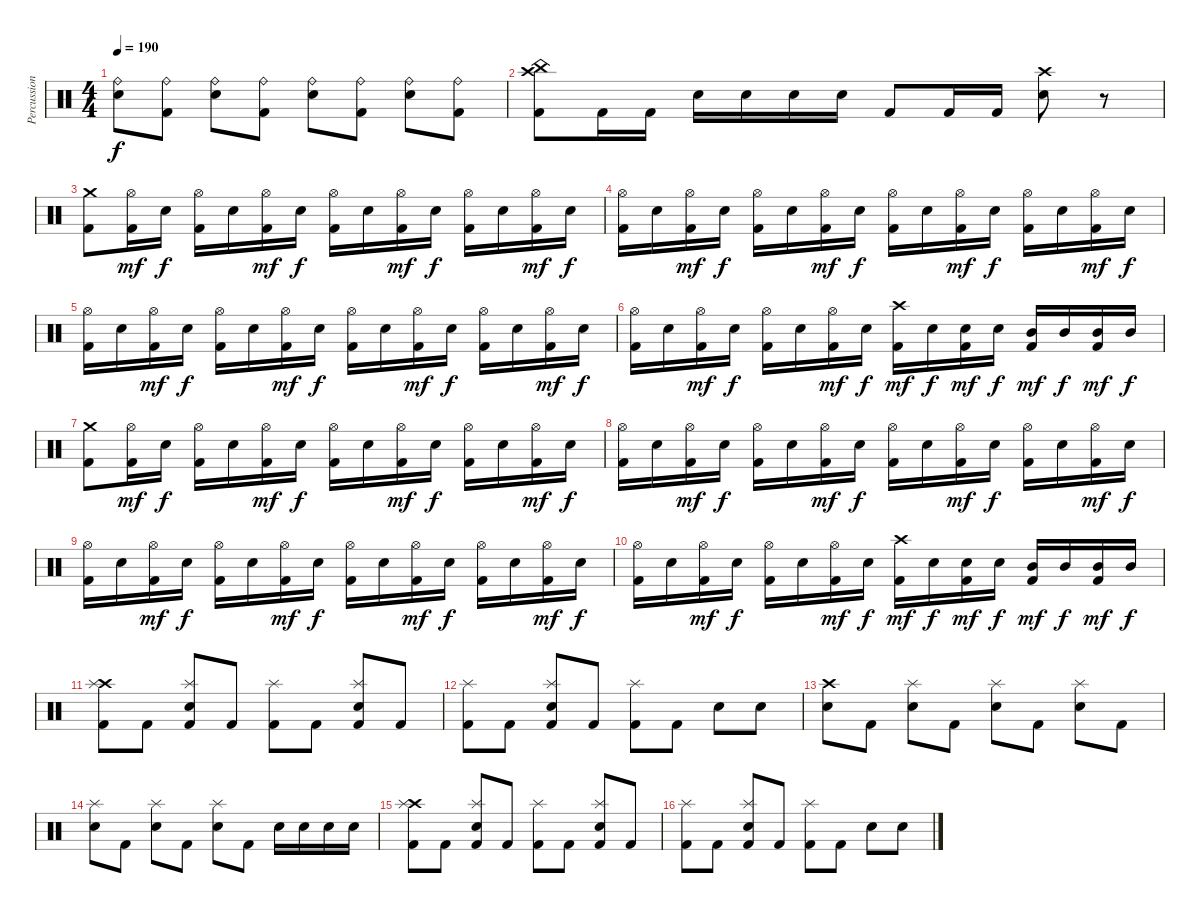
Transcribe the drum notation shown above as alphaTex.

\track ("Percussion" "Percussion") {instrument percussion}
\staff {score}
\articulation defaults
\ts (4 4)
\tempo 190
\clef neutral
\ks c
("Ride (bell)" "Electric Snare (hit)").8{dy f} ("Ride (bell)" "Kick (hit) 2").8 ("Ride (bell)" "Electric Snare (hit)").8 ("Ride (bell)" "Kick (hit) 2").8 ("Ride (bell)" "Electric Snare (hit)").8 ("Ride (bell)" "Kick (hit) 2").8 ("Ride (bell)" "Electric Snare (hit)").8 ("Ride (bell)" "Kick (hit) 2").8 |
("Crash high (hit)" "China (hit)" "Kick (hit) 2").8 "Kick (hit) 2".16 "Kick (hit) 2".16 "Electric Snare (hit)".16 "Electric Snare (hit)".16 "Electric Snare (hit)".16 "Electric Snare (hit)".16 "Kick (hit) 2".8 "Kick (hit) 2".16 "Kick (hit) 2".16 ("Crash high (hit)" "Electric Snare (hit)").8 r.8 |
("Crash medium (hit)" "Kick (hit) 2").8 ("Hi-Hat (open)" "Kick (hit) 2").16{dy mf} "Electric Snare (hit)".16{dy f} ("Hi-Hat (open)" "Kick (hit) 2").16 "Electric Snare (hit)".16 ("Hi-Hat (open)" "Kick (hit) 2").16{dy mf} "Electric Snare (hit)".16{dy f} ("Hi-Hat (open)" "Kick (hit) 2").16 "Electric Snare (hit)".16 ("Hi-Hat (open)" "Kick (hit) 2").16{dy mf} "Electric Snare (hit)".16{dy f} ("Hi-Hat (open)" "Kick (hit) 2").16 "Electric Snare (hit)".16 ("Hi-Hat (open)" "Kick (hit) 2").16{dy mf} "Electric Snare (hit)".16{dy f} |
("Hi-Hat (open)" "Kick (hit) 2").16 "Electric Snare (hit)".16 ("Hi-Hat (open)" "Kick (hit) 2").16{dy mf} "Electric Snare (hit)".16{dy f} ("Hi-Hat (open)" "Kick (hit) 2").16 "Electric Snare (hit)".16 ("Hi-Hat (open)" "Kick (hit) 2").16{dy mf} "Electric Snare (hit)".16{dy f} ("Hi-Hat (open)" "Kick (hit) 2").16 "Electric Snare (hit)".16 ("Hi-Hat (open)" "Kick (hit) 2").16{dy mf} "Electric Snare (hit)".16{dy f} ("Hi-Hat (open)" "Kick (hit) 2").16 "Electric Snare (hit)".16 ("Hi-Hat (open)" "Kick (hit) 2").16{dy mf} "Electric Snare (hit)".16{dy f} |
("Hi-Hat (open)" "Kick (hit) 2").16 "Electric Snare (hit)".16 ("Hi-Hat (open)" "Kick (hit) 2").16{dy mf} "Electric Snare (hit)".16{dy f} ("Hi-Hat (open)" "Kick (hit) 2").16 "Electric Snare (hit)".16 ("Hi-Hat (open)" "Kick (hit) 2").16{dy mf} "Electric Snare (hit)".16{dy f} ("Hi-Hat (open)" "Kick (hit) 2").16 "Electric Snare (hit)".16 ("Hi-Hat (open)" "Kick (hit) 2").16{dy mf} "Electric Snare (hit)".16{dy f} ("Hi-Hat (open)" "Kick (hit) 2").16 "Electric Snare (hit)".16 ("Hi-Hat (open)" "Kick (hit) 2").16{dy mf} "Electric Snare (hit)".16{dy f} |
("Hi-Hat (open)" "Kick (hit) 2").16 "Electric Snare (hit)".16 ("Hi-Hat (open)" "Kick (hit) 2").16{dy mf} "Electric Snare (hit)".16{dy f} ("Hi-Hat (open)" "Kick (hit) 2").16 "Electric Snare (hit)".16 ("Hi-Hat (open)" "Kick (hit) 2").16{dy mf} "Electric Snare (hit)".16{dy f} ("Crash high (hit)" "Kick (hit) 2").16{dy mf} "Electric Snare (hit)".16{dy f} ("Electric Snare (hit)" "Kick (hit) 2").16{dy mf} "Electric Snare (hit)".16{dy f} ("Mid Tom (hit)" "Kick (hit) 2").16{dy mf} "Mid Tom (hit)".16{dy f} ("Mid Tom (hit)" "Kick (hit) 2").16{dy mf} "Mid Tom (hit)".16{dy f} |
("Crash medium (hit)" "Kick (hit) 2").8 ("Hi-Hat (open)" "Kick (hit) 2").16{dy mf} "Electric Snare (hit)".16{dy f} ("Hi-Hat (open)" "Kick (hit) 2").16 "Electric Snare (hit)".16 ("Hi-Hat (open)" "Kick (hit) 2").16{dy mf} "Electric Snare (hit)".16{dy f} ("Hi-Hat (open)" "Kick (hit) 2").16 "Electric Snare (hit)".16 ("Hi-Hat (open)" "Kick (hit) 2").16{dy mf} "Electric Snare (hit)".16{dy f} ("Hi-Hat (open)" "Kick (hit) 2").16 "Electric Snare (hit)".16 ("Hi-Hat (open)" "Kick (hit) 2").16{dy mf} "Electric Snare (hit)".16{dy f} |
("Hi-Hat (open)" "Kick (hit) 2").16 "Electric Snare (hit)".16 ("Hi-Hat (open)" "Kick (hit) 2").16{dy mf} "Electric Snare (hit)".16{dy f} ("Hi-Hat (open)" "Kick (hit) 2").16 "Electric Snare (hit)".16 ("Hi-Hat (open)" "Kick (hit) 2").16{dy mf} "Electric Snare (hit)".16{dy f} ("Hi-Hat (open)" "Kick (hit) 2").16 "Electric Snare (hit)".16 ("Hi-Hat (open)" "Kick (hit) 2").16{dy mf} "Electric Snare (hit)".16{dy f} ("Hi-Hat (open)" "Kick (hit) 2").16 "Electric Snare (hit)".16 ("Hi-Hat (open)" "Kick (hit) 2").16{dy mf} "Electric Snare (hit)".16{dy f} |
("Hi-Hat (open)" "Kick (hit) 2").16 "Electric Snare (hit)".16 ("Hi-Hat (open)" "Kick (hit) 2").16{dy mf} "Electric Snare (hit)".16{dy f} ("Hi-Hat (open)" "Kick (hit) 2").16 "Electric Snare (hit)".16 ("Hi-Hat (open)" "Kick (hit) 2").16{dy mf} "Electric Snare (hit)".16{dy f} ("Hi-Hat (open)" "Kick (hit) 2").16 "Electric Snare (hit)".16 ("Hi-Hat (open)" "Kick (hit) 2").16{dy mf} "Electric Snare (hit)".16{dy f} ("Hi-Hat (open)" "Kick (hit) 2").16 "Electric Snare (hit)".16 ("Hi-Hat (open)" "Kick (hit) 2").16{dy mf} "Electric Snare (hit)".16{dy f} |
("Hi-Hat (open)" "Kick (hit) 2").16 "Electric Snare (hit)".16 ("Hi-Hat (open)" "Kick (hit) 2").16{dy mf} "Electric Snare (hit)".16{dy f} ("Hi-Hat (open)" "Kick (hit) 2").16 "Electric Snare (hit)".16 ("Hi-Hat (open)" "Kick (hit) 2").16{dy mf} "Electric Snare (hit)".16{dy f} ("Crash high (hit)" "Kick (hit) 2").16{dy mf} "Electric Snare (hit)".16{dy f} ("Electric Snare (hit)" "Kick (hit) 2").16{dy mf} "Electric Snare (hit)".16{dy f} ("Mid Tom (hit)" "Kick (hit) 2").16{dy mf} "Mid Tom (hit)".16{dy f} ("Mid Tom (hit)" "Kick (hit) 2").16{dy mf} "Mid Tom (hit)".16{dy f} |
("Crash high (hit)" "Splash (hit)" "Kick (hit) 2").8 "Kick (hit) 2".8 ("Splash (hit)" "Snare (hit) 2" "Kick (hit) 2").8 "Kick (hit) 2".8 ("Splash (hit)" "Kick (hit) 2").8 "Kick (hit) 2".8 ("Splash (hit)" "Snare (hit) 2" "Kick (hit) 2").8 "Kick (hit) 2".8 |
("Splash (hit)" "Kick (hit) 2").8 "Kick (hit) 2".8 ("Splash (hit)" "Snare (hit) 2" "Kick (hit) 2").8 "Kick (hit) 2".8 ("Splash (hit)" "Kick (hit) 2").8 "Kick (hit) 2".8 "Snare (hit) 2".8 "Snare (hit) 2".8 |
("Crash high (hit)" "Snare (hit) 2").8 "Kick (hit) 2".8 ("Splash (hit)" "Snare (hit) 2").8 "Kick (hit) 2".8 ("Splash (hit)" "Snare (hit) 2").8 "Kick (hit) 2".8 ("Splash (hit)" "Snare (hit) 2").8 "Kick (hit) 2".8 |
("Splash (hit)" "Snare (hit) 2").8 "Kick (hit) 2".8 ("Splash (hit)" "Snare (hit) 2").8 "Kick (hit) 2".8 ("Splash (hit)" "Snare (hit) 2").8 "Kick (hit) 2".8 "Snare (hit) 2".16 "Snare (hit) 2".16 "Snare (hit) 2".16 "Snare (hit) 2".16 |
("Crash high (hit)" "Splash (hit)" "Kick (hit) 2").8 "Kick (hit) 2".8 ("Splash (hit)" "Snare (hit) 2" "Kick (hit) 2").8 "Kick (hit) 2".8 ("Splash (hit)" "Kick (hit) 2").8 "Kick (hit) 2".8 ("Splash (hit)" "Snare (hit) 2" "Kick (hit) 2").8 "Kick (hit) 2".8 |
("Splash (hit)" "Kick (hit) 2").8 "Kick (hit) 2".8 ("Splash (hit)" "Snare (hit) 2" "Kick (hit) 2").8 "Kick (hit) 2".8 ("Splash (hit)" "Kick (hit) 2").8 "Kick (hit) 2".8 "Snare (hit) 2".8 "Snare (hit) 2".8
